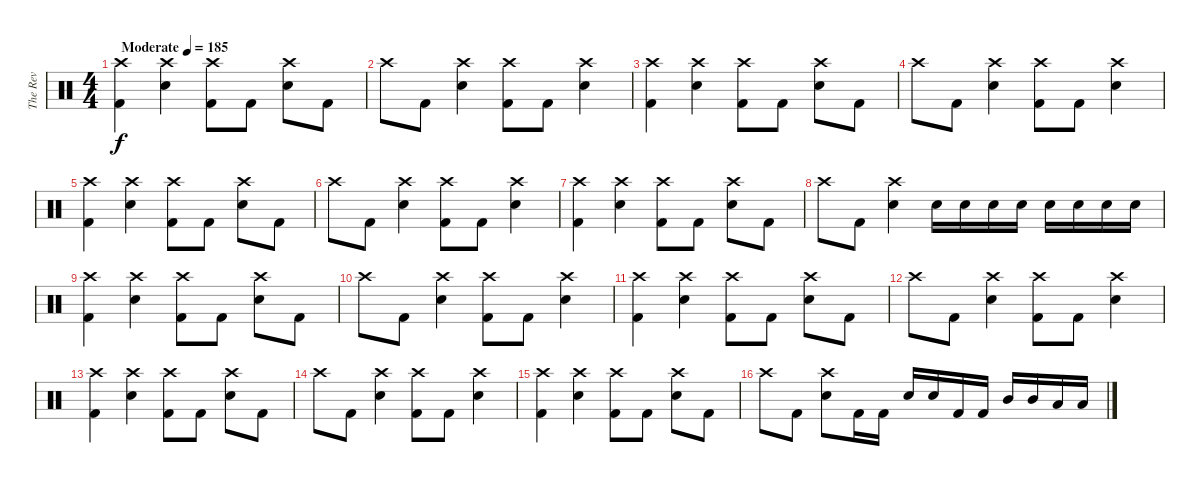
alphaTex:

\track ("The Rev" "The Rev") {instrument percussion}
\staff {score}
\articulation defaults
\ts (4 4)
\tempo (185 "Moderate")
\clef neutral
\ks c
("Crash high (hit)" "Kick (hit) 2").4{dy f} ("Crash high (hit)" "Electric Snare (hit)").4 ("Crash high (hit)" "Kick (hit) 2").8 "Kick (hit) 2".8 ("Crash high (hit)" "Electric Snare (hit)").8 "Kick (hit) 2".8 |
"Crash high (hit)".8 "Kick (hit) 2".8 ("Crash high (hit)" "Electric Snare (hit)").4 ("Crash high (hit)" "Kick (hit) 2").8 "Kick (hit) 2".8 ("Crash high (hit)" "Electric Snare (hit)").4 |
("Crash high (hit)" "Kick (hit) 2").4 ("Crash high (hit)" "Electric Snare (hit)").4 ("Crash high (hit)" "Kick (hit) 2").8 "Kick (hit) 2".8 ("Crash high (hit)" "Electric Snare (hit)").8 "Kick (hit) 2".8 |
"Crash high (hit)".8 "Kick (hit) 2".8 ("Crash high (hit)" "Electric Snare (hit)").4 ("Crash high (hit)" "Kick (hit) 2").8 "Kick (hit) 2".8 ("Crash high (hit)" "Electric Snare (hit)").4 |
("Crash high (hit)" "Kick (hit) 2").4 ("Crash high (hit)" "Electric Snare (hit)").4 ("Crash high (hit)" "Kick (hit) 2").8 "Kick (hit) 2".8 ("Crash high (hit)" "Electric Snare (hit)").8 "Kick (hit) 2".8 |
"Crash high (hit)".8 "Kick (hit) 2".8 ("Crash high (hit)" "Electric Snare (hit)").4 ("Crash high (hit)" "Kick (hit) 2").8 "Kick (hit) 2".8 ("Crash high (hit)" "Electric Snare (hit)").4 |
("Crash high (hit)" "Kick (hit) 2").4 ("Crash high (hit)" "Electric Snare (hit)").4 ("Crash high (hit)" "Kick (hit) 2").8 "Kick (hit) 2".8 ("Crash high (hit)" "Electric Snare (hit)").8 "Kick (hit) 2".8 |
"Crash high (hit)".8 "Kick (hit) 2".8 ("Crash high (hit)" "Electric Snare (hit)").4 "Electric Snare (hit)".16 "Electric Snare (hit)".16 "Electric Snare (hit)".16 "Electric Snare (hit)".16 "Electric Snare (hit)".16 "Electric Snare (hit)".16 "Electric Snare (hit)".16 "Electric Snare (hit)".16 |
("Crash high (hit)" "Kick (hit) 2").4 ("Crash high (hit)" "Electric Snare (hit)").4 ("Crash high (hit)" "Kick (hit) 2").8 "Kick (hit) 2".8 ("Crash high (hit)" "Electric Snare (hit)").8 "Kick (hit) 2".8 |
"Crash high (hit)".8 "Kick (hit) 2".8 ("Crash high (hit)" "Electric Snare (hit)").4 ("Crash high (hit)" "Kick (hit) 2").8 "Kick (hit) 2".8 ("Crash high (hit)" "Electric Snare (hit)").4 |
("Crash high (hit)" "Kick (hit) 2").4 ("Crash high (hit)" "Electric Snare (hit)").4 ("Crash high (hit)" "Kick (hit) 2").8 "Kick (hit) 2".8 ("Crash high (hit)" "Electric Snare (hit)").8 "Kick (hit) 2".8 |
"Crash high (hit)".8 "Kick (hit) 2".8 ("Crash high (hit)" "Electric Snare (hit)").4 ("Crash high (hit)" "Kick (hit) 2").8 "Kick (hit) 2".8 ("Crash high (hit)" "Electric Snare (hit)").4 |
("Crash high (hit)" "Kick (hit) 2").4 ("Crash high (hit)" "Electric Snare (hit)").4 ("Crash high (hit)" "Kick (hit) 2").8 "Kick (hit) 2".8 ("Crash high (hit)" "Electric Snare (hit)").8 "Kick (hit) 2".8 |
"Crash high (hit)".8 "Kick (hit) 2".8 ("Crash high (hit)" "Electric Snare (hit)").4 ("Crash high (hit)" "Kick (hit) 2").8 "Kick (hit) 2".8 ("Crash high (hit)" "Electric Snare (hit)").4 |
("Crash high (hit)" "Kick (hit) 2").4 ("Crash high (hit)" "Electric Snare (hit)").4 ("Crash high (hit)" "Kick (hit) 2").8 "Kick (hit) 2".8 ("Crash high (hit)" "Electric Snare (hit)").8 "Kick (hit) 2".8 |
"Crash high (hit)".8 "Kick (hit) 2".8 ("Crash high (hit)" "Electric Snare (hit)").8 "Kick (hit) 2".16 "Kick (hit) 2".16 "Electric Snare (hit)".16 "Electric Snare (hit)".16 "Kick (hit) 2".16 "Kick (hit) 2".16 "Mid Tom (hit)".16 "Mid Tom (hit)".16 "Low Tom (hit)".16 "Low Tom (hit)".16
